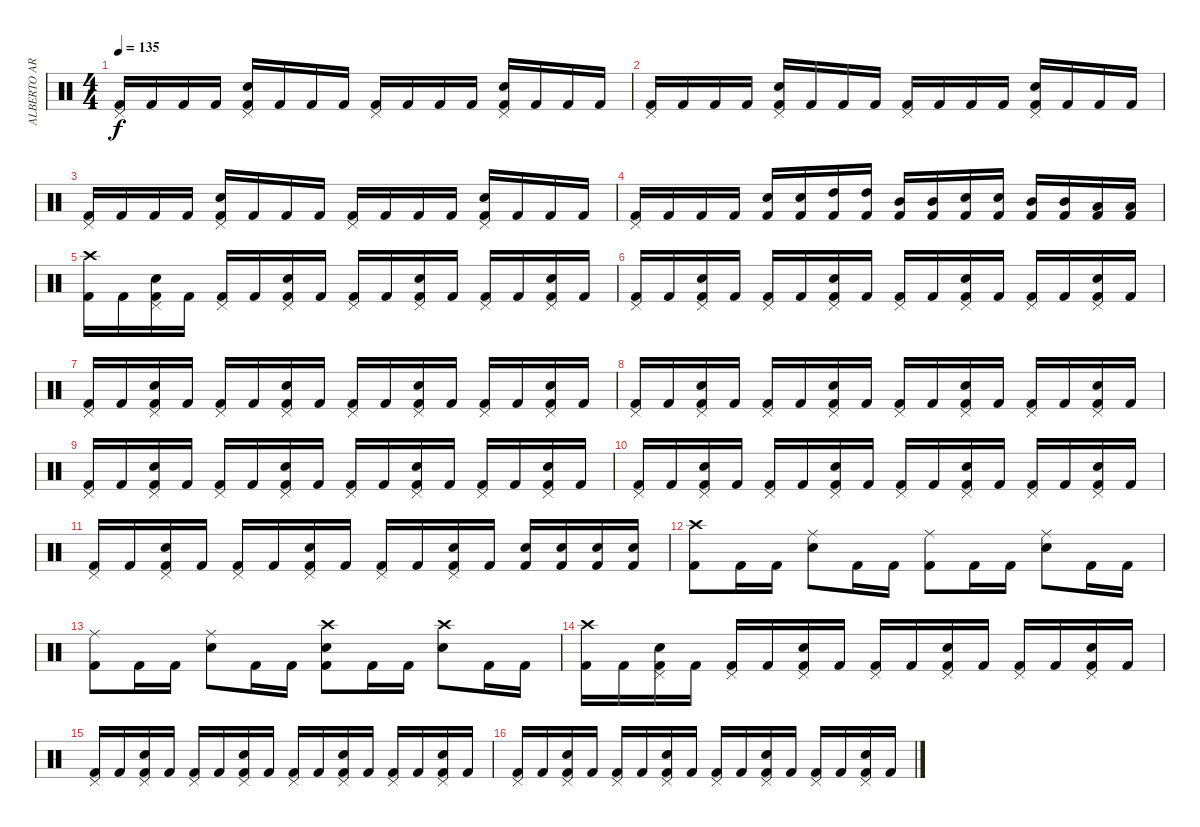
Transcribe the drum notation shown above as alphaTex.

\track ("ALBERTO ARDINES" "ALBERTO AR") {instrument percussion}
\staff {score}
\articulation defaults
\ts (4 4)
\tempo 135
\clef neutral
\ks c
("Pedal Hi-Hat (hit)" "Kick (hit) 2").16{dy f} "Kick (hit) 2".16 "Kick (hit) 2".16 "Kick (hit) 2".16 ("Pedal Hi-Hat (hit)" "Electric Snare (hit)" "Kick (hit) 2").16 "Kick (hit) 2".16 "Kick (hit) 2".16 "Kick (hit) 2".16 ("Pedal Hi-Hat (hit)" "Kick (hit) 2").16 "Kick (hit) 2".16 "Kick (hit) 2".16 "Kick (hit) 2".16 ("Pedal Hi-Hat (hit)" "Electric Snare (hit)" "Kick (hit) 2").16 "Kick (hit) 2".16 "Kick (hit) 2".16 "Kick (hit) 2".16 |
("Pedal Hi-Hat (hit)" "Kick (hit) 2").16 "Kick (hit) 2".16 "Kick (hit) 2".16 "Kick (hit) 2".16 ("Pedal Hi-Hat (hit)" "Electric Snare (hit)" "Kick (hit) 2").16 "Kick (hit) 2".16 "Kick (hit) 2".16 "Kick (hit) 2".16 ("Pedal Hi-Hat (hit)" "Kick (hit) 2").16 "Kick (hit) 2".16 "Kick (hit) 2".16 "Kick (hit) 2".16 ("Pedal Hi-Hat (hit)" "Electric Snare (hit)" "Kick (hit) 2").16 "Kick (hit) 2".16 "Kick (hit) 2".16 "Kick (hit) 2".16 |
("Pedal Hi-Hat (hit)" "Kick (hit) 2").16 "Kick (hit) 2".16 "Kick (hit) 2".16 "Kick (hit) 2".16 ("Pedal Hi-Hat (hit)" "Electric Snare (hit)" "Kick (hit) 2").16 "Kick (hit) 2".16 "Kick (hit) 2".16 "Kick (hit) 2".16 ("Pedal Hi-Hat (hit)" "Kick (hit) 2").16 "Kick (hit) 2".16 "Kick (hit) 2".16 "Kick (hit) 2".16 ("Pedal Hi-Hat (hit)" "Electric Snare (hit)" "Kick (hit) 2").16 "Kick (hit) 2".16 "Kick (hit) 2".16 "Kick (hit) 2".16 |
("Pedal Hi-Hat (hit)" "Kick (hit) 2").16 "Kick (hit) 2".16 "Kick (hit) 2".16 "Kick (hit) 2".16 ("Electric Snare (hit)" "Kick (hit) 2").16 ("Electric Snare (hit)" "Kick (hit) 2").16 ("High Tom (hit)" "Kick (hit) 2").16 ("High Tom (hit)" "Kick (hit) 2").16 ("Mid Tom (hit)" "Kick (hit) 2").16 ("Mid Tom (hit)" "Kick (hit) 2").16 ("Electric Snare (hit)" "Kick (hit) 2").16 ("Electric Snare (hit)" "Kick (hit) 2").16 ("Mid Tom (hit)" "Kick (hit) 2").16 ("Mid Tom (hit)" "Kick (hit) 2").16 ("Low Tom (hit)" "Kick (hit) 2").16 ("Low Tom (hit)" "Kick (hit) 2").16 |
("Crash high (hit)" "Kick (hit) 2").16 "Kick (hit) 2".16 ("Pedal Hi-Hat (hit)" "Electric Snare (hit)" "Kick (hit) 2").16 "Kick (hit) 2".16 ("Pedal Hi-Hat (hit)" "Kick (hit) 2").16 "Kick (hit) 2".16 ("Pedal Hi-Hat (hit)" "Electric Snare (hit)" "Kick (hit) 2").16 "Kick (hit) 2".16 ("Pedal Hi-Hat (hit)" "Kick (hit) 2").16 "Kick (hit) 2".16 ("Pedal Hi-Hat (hit)" "Electric Snare (hit)" "Kick (hit) 2").16 "Kick (hit) 2".16 ("Pedal Hi-Hat (hit)" "Kick (hit) 2").16 "Kick (hit) 2".16 ("Pedal Hi-Hat (hit)" "Electric Snare (hit)" "Kick (hit) 2").16 "Kick (hit) 2".16 |
("Pedal Hi-Hat (hit)" "Kick (hit) 2").16 "Kick (hit) 2".16 ("Pedal Hi-Hat (hit)" "Electric Snare (hit)" "Kick (hit) 2").16 "Kick (hit) 2".16 ("Pedal Hi-Hat (hit)" "Kick (hit) 2").16 "Kick (hit) 2".16 ("Pedal Hi-Hat (hit)" "Electric Snare (hit)" "Kick (hit) 2").16 "Kick (hit) 2".16 ("Pedal Hi-Hat (hit)" "Kick (hit) 2").16 "Kick (hit) 2".16 ("Pedal Hi-Hat (hit)" "Electric Snare (hit)" "Kick (hit) 2").16 "Kick (hit) 2".16 ("Pedal Hi-Hat (hit)" "Kick (hit) 2").16 "Kick (hit) 2".16 ("Pedal Hi-Hat (hit)" "Electric Snare (hit)" "Kick (hit) 2").16 "Kick (hit) 2".16 |
("Pedal Hi-Hat (hit)" "Kick (hit) 2").16 "Kick (hit) 2".16 ("Pedal Hi-Hat (hit)" "Electric Snare (hit)" "Kick (hit) 2").16 "Kick (hit) 2".16 ("Pedal Hi-Hat (hit)" "Kick (hit) 2").16 "Kick (hit) 2".16 ("Pedal Hi-Hat (hit)" "Electric Snare (hit)" "Kick (hit) 2").16 "Kick (hit) 2".16 ("Pedal Hi-Hat (hit)" "Kick (hit) 2").16 "Kick (hit) 2".16 ("Pedal Hi-Hat (hit)" "Electric Snare (hit)" "Kick (hit) 2").16 "Kick (hit) 2".16 ("Pedal Hi-Hat (hit)" "Kick (hit) 2").16 "Kick (hit) 2".16 ("Pedal Hi-Hat (hit)" "Electric Snare (hit)" "Kick (hit) 2").16 "Kick (hit) 2".16 |
("Pedal Hi-Hat (hit)" "Kick (hit) 2").16 "Kick (hit) 2".16 ("Pedal Hi-Hat (hit)" "Electric Snare (hit)" "Kick (hit) 2").16 "Kick (hit) 2".16 ("Pedal Hi-Hat (hit)" "Kick (hit) 2").16 "Kick (hit) 2".16 ("Pedal Hi-Hat (hit)" "Electric Snare (hit)" "Kick (hit) 2").16 "Kick (hit) 2".16 ("Pedal Hi-Hat (hit)" "Kick (hit) 2").16 "Kick (hit) 2".16 ("Pedal Hi-Hat (hit)" "Electric Snare (hit)" "Kick (hit) 2").16 "Kick (hit) 2".16 ("Pedal Hi-Hat (hit)" "Kick (hit) 2").16 "Kick (hit) 2".16 ("Pedal Hi-Hat (hit)" "Electric Snare (hit)" "Kick (hit) 2").16 "Kick (hit) 2".16 |
("Pedal Hi-Hat (hit)" "Kick (hit) 2").16 "Kick (hit) 2".16 ("Pedal Hi-Hat (hit)" "Electric Snare (hit)" "Kick (hit) 2").16 "Kick (hit) 2".16 ("Pedal Hi-Hat (hit)" "Kick (hit) 2").16 "Kick (hit) 2".16 ("Pedal Hi-Hat (hit)" "Electric Snare (hit)" "Kick (hit) 2").16 "Kick (hit) 2".16 ("Pedal Hi-Hat (hit)" "Kick (hit) 2").16 "Kick (hit) 2".16 ("Pedal Hi-Hat (hit)" "Electric Snare (hit)" "Kick (hit) 2").16 "Kick (hit) 2".16 ("Pedal Hi-Hat (hit)" "Kick (hit) 2").16 "Kick (hit) 2".16 ("Pedal Hi-Hat (hit)" "Electric Snare (hit)" "Kick (hit) 2").16 "Kick (hit) 2".16 |
("Pedal Hi-Hat (hit)" "Kick (hit) 2").16 "Kick (hit) 2".16 ("Pedal Hi-Hat (hit)" "Electric Snare (hit)" "Kick (hit) 2").16 "Kick (hit) 2".16 ("Pedal Hi-Hat (hit)" "Kick (hit) 2").16 "Kick (hit) 2".16 ("Pedal Hi-Hat (hit)" "Electric Snare (hit)" "Kick (hit) 2").16 "Kick (hit) 2".16 ("Pedal Hi-Hat (hit)" "Kick (hit) 2").16 "Kick (hit) 2".16 ("Pedal Hi-Hat (hit)" "Electric Snare (hit)" "Kick (hit) 2").16 "Kick (hit) 2".16 ("Pedal Hi-Hat (hit)" "Kick (hit) 2").16 "Kick (hit) 2".16 ("Pedal Hi-Hat (hit)" "Electric Snare (hit)" "Kick (hit) 2").16 "Kick (hit) 2".16 |
("Pedal Hi-Hat (hit)" "Kick (hit) 2").16 "Kick (hit) 2".16 ("Pedal Hi-Hat (hit)" "Electric Snare (hit)" "Kick (hit) 2").16 "Kick (hit) 2".16 ("Pedal Hi-Hat (hit)" "Kick (hit) 2").16 "Kick (hit) 2".16 ("Pedal Hi-Hat (hit)" "Electric Snare (hit)" "Kick (hit) 2").16 "Kick (hit) 2".16 ("Pedal Hi-Hat (hit)" "Kick (hit) 2").16 "Kick (hit) 2".16 ("Pedal Hi-Hat (hit)" "Electric Snare (hit)" "Kick (hit) 2").16 "Kick (hit) 2".16 ("Electric Snare (hit)" "Kick (hit) 2").16 ("Electric Snare (hit)" "Kick (hit) 2").16 ("Electric Snare (hit)" "Kick (hit) 2").16 ("Electric Snare (hit)" "Kick (hit) 2").16 |
("Crash high (hit)" "Kick (hit) 2").8 "Kick (hit) 2".16 "Kick (hit) 2".16 ("Ride (middle)" "Electric Snare (hit)").8 "Kick (hit) 2".16 "Kick (hit) 2".16 ("Ride (middle)" "Kick (hit) 2").8 "Kick (hit) 2".16 "Kick (hit) 2".16 ("Ride (middle)" "Electric Snare (hit)").8 "Kick (hit) 2".16 "Kick (hit) 2".16 |
("Ride (middle)" "Kick (hit) 2").8 "Kick (hit) 2".16 "Kick (hit) 2".16 ("Ride (middle)" "Electric Snare (hit)").8 "Kick (hit) 2".16 "Kick (hit) 2".16 ("Crash high (hit)" "Electric Snare (hit)" "Kick (hit) 2").8 "Kick (hit) 2".16 "Kick (hit) 2".16 ("Crash high (hit)" "Electric Snare (hit)").8 "Kick (hit) 2".16 "Kick (hit) 2".16 |
("Crash high (hit)" "Kick (hit) 2").16 "Kick (hit) 2".16 ("Pedal Hi-Hat (hit)" "Electric Snare (hit)" "Kick (hit) 2").16 "Kick (hit) 2".16 ("Pedal Hi-Hat (hit)" "Kick (hit) 2").16 "Kick (hit) 2".16 ("Pedal Hi-Hat (hit)" "Electric Snare (hit)" "Kick (hit) 2").16 "Kick (hit) 2".16 ("Pedal Hi-Hat (hit)" "Kick (hit) 2").16 "Kick (hit) 2".16 ("Pedal Hi-Hat (hit)" "Electric Snare (hit)" "Kick (hit) 2").16 "Kick (hit) 2".16 ("Pedal Hi-Hat (hit)" "Kick (hit) 2").16 "Kick (hit) 2".16 ("Pedal Hi-Hat (hit)" "Electric Snare (hit)" "Kick (hit) 2").16 "Kick (hit) 2".16 |
("Pedal Hi-Hat (hit)" "Kick (hit) 2").16 "Kick (hit) 2".16 ("Pedal Hi-Hat (hit)" "Electric Snare (hit)" "Kick (hit) 2").16 "Kick (hit) 2".16 ("Pedal Hi-Hat (hit)" "Kick (hit) 2").16 "Kick (hit) 2".16 ("Pedal Hi-Hat (hit)" "Electric Snare (hit)" "Kick (hit) 2").16 "Kick (hit) 2".16 ("Pedal Hi-Hat (hit)" "Kick (hit) 2").16 "Kick (hit) 2".16 ("Pedal Hi-Hat (hit)" "Electric Snare (hit)" "Kick (hit) 2").16 "Kick (hit) 2".16 ("Pedal Hi-Hat (hit)" "Kick (hit) 2").16 "Kick (hit) 2".16 ("Pedal Hi-Hat (hit)" "Electric Snare (hit)" "Kick (hit) 2").16 "Kick (hit) 2".16 |
("Pedal Hi-Hat (hit)" "Kick (hit) 2").16 "Kick (hit) 2".16 ("Pedal Hi-Hat (hit)" "Electric Snare (hit)" "Kick (hit) 2").16 "Kick (hit) 2".16 ("Pedal Hi-Hat (hit)" "Kick (hit) 2").16 "Kick (hit) 2".16 ("Pedal Hi-Hat (hit)" "Electric Snare (hit)" "Kick (hit) 2").16 "Kick (hit) 2".16 ("Pedal Hi-Hat (hit)" "Kick (hit) 2").16 "Kick (hit) 2".16 ("Pedal Hi-Hat (hit)" "Electric Snare (hit)" "Kick (hit) 2").16 "Kick (hit) 2".16 ("Pedal Hi-Hat (hit)" "Kick (hit) 2").16 "Kick (hit) 2".16 ("Pedal Hi-Hat (hit)" "Electric Snare (hit)" "Kick (hit) 2").16 "Kick (hit) 2".16
